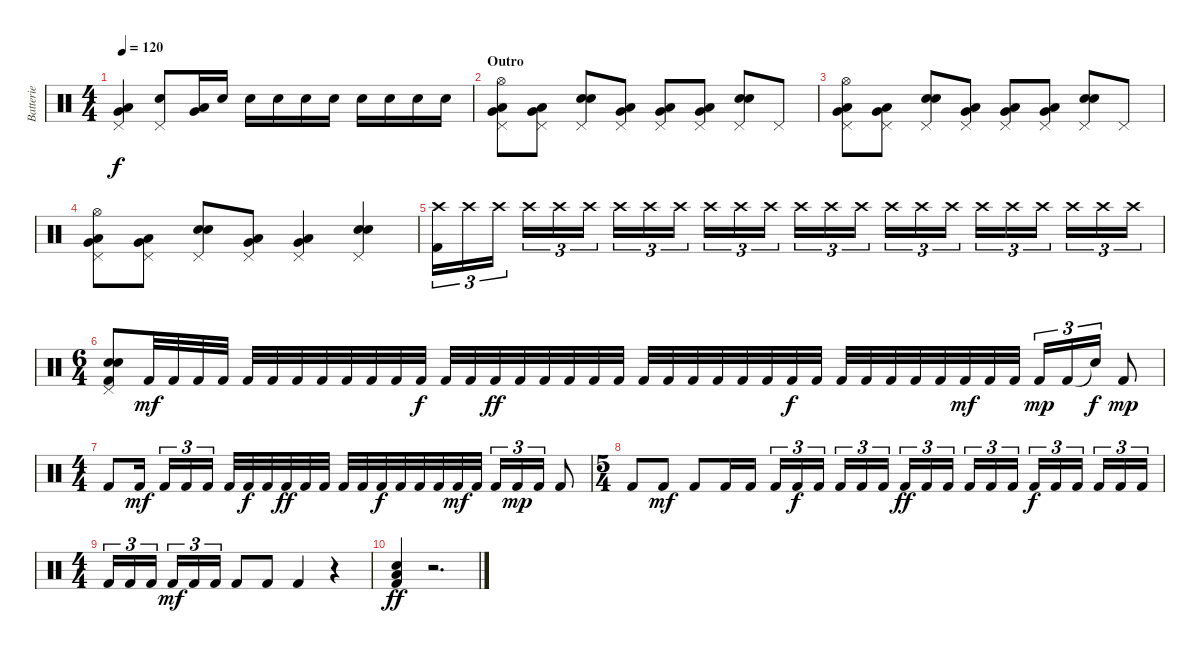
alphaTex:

\track ("Batterie" "Batterie") {instrument percussion}
\staff {score}
\articulation defaults
\ts (4 4)
\tempo 120
\clef neutral
\ks c
("Pedal Hi-Hat (hit)" "Very Low Tom (hit)" "Low Floor Tom (hit)").4{dy f} ("Pedal Hi-Hat (hit)" "Electric Snare (hit)").8 ("Very Low Tom (hit)" "Low Floor Tom (hit)").16 "Electric Snare (hit)".16 "Electric Snare (hit)".16 "Electric Snare (hit)".16 "Electric Snare (hit)".16 "Electric Snare (hit)".16 "Electric Snare (hit)".16 "Electric Snare (hit)".16 "Electric Snare (hit)".16 "Electric Snare (hit)".16 |
\section ("" "Outro")
("Pedal Hi-Hat (hit)" "Hi-Hat (open)" "Very Low Tom (hit)" "Low Floor Tom (hit)").8 ("Pedal Hi-Hat (hit)" "Very Low Tom (hit)" "Low Floor Tom (hit)").8 ("Pedal Hi-Hat (hit)" "Electric Snare (hit)" "Electric Snare (hit)").8 ("Pedal Hi-Hat (hit)" "Very Low Tom (hit)" "Low Floor Tom (hit)").8 ("Pedal Hi-Hat (hit)" "Very Low Tom (hit)" "Low Floor Tom (hit)").8 ("Pedal Hi-Hat (hit)" "Very Low Tom (hit)" "Low Floor Tom (hit)").8 ("Pedal Hi-Hat (hit)" "Electric Snare (hit)" "Electric Snare (hit)").8 "Pedal Hi-Hat (hit)".8 |
("Pedal Hi-Hat (hit)" "Hi-Hat (open)" "Very Low Tom (hit)" "Low Floor Tom (hit)").8 ("Pedal Hi-Hat (hit)" "Very Low Tom (hit)" "Low Floor Tom (hit)").8 ("Pedal Hi-Hat (hit)" "Electric Snare (hit)" "Electric Snare (hit)").8 ("Pedal Hi-Hat (hit)" "Very Low Tom (hit)" "Low Floor Tom (hit)").8 ("Pedal Hi-Hat (hit)" "Very Low Tom (hit)" "Low Floor Tom (hit)").8 ("Pedal Hi-Hat (hit)" "Very Low Tom (hit)" "Low Floor Tom (hit)").8 ("Pedal Hi-Hat (hit)" "Electric Snare (hit)" "Electric Snare (hit)").8 "Pedal Hi-Hat (hit)".8 |
("Pedal Hi-Hat (hit)" "Hi-Hat (open)" "Very Low Tom (hit)" "Low Floor Tom (hit)").8 ("Pedal Hi-Hat (hit)" "Very Low Tom (hit)" "Low Floor Tom (hit)").8 ("Pedal Hi-Hat (hit)" "Electric Snare (hit)" "Electric Snare (hit)").8 ("Pedal Hi-Hat (hit)" "Very Low Tom (hit)" "Low Floor Tom (hit)").8 ("Pedal Hi-Hat (hit)" "Very Low Tom (hit)" "Low Floor Tom (hit)").4 ("Pedal Hi-Hat (hit)" "Electric Snare (hit)" "Electric Snare (hit)").4 |
("Crash high (hit)" "Kick (hit) 2").16{tu (3 2)} "Crash high (hit)".16{tu (3 2)} "Crash high (hit)".16{tu (3 2)} "Crash high (hit)".16{tu (3 2)} "Crash high (hit)".16{tu (3 2)} "Crash high (hit)".16{tu (3 2)} "Crash high (hit)".16{tu (3 2)} "Crash high (hit)".16{tu (3 2)} "Crash high (hit)".16{tu (3 2)} "Crash high (hit)".16{tu (3 2)} "Crash high (hit)".16{tu (3 2)} "Crash high (hit)".16{tu (3 2)} "Crash high (hit)".16{tu (3 2)} "Crash high (hit)".16{tu (3 2)} "Crash high (hit)".16{tu (3 2)} "Crash high (hit)".16{tu (3 2)} "Crash high (hit)".16{tu (3 2)} "Crash high (hit)".16{tu (3 2)} "Crash high (hit)".16{tu (3 2)} "Crash high (hit)".16{tu (3 2)} "Crash high (hit)".16{tu (3 2)} "Crash high (hit)".16{tu (3 2)} "Crash high (hit)".16{tu (3 2)} "Crash high (hit)".16{tu (3 2)} |
\ts (6 4)
("Pedal Hi-Hat (hit)" "Electric Snare (hit)" "Electric Snare (hit)" "Kick (hit) 2").8 "Kick (hit) 2".32{dy mf} "Kick (hit) 2".32 "Kick (hit) 2".32 "Kick (hit) 2".32 "Kick (hit) 2".32 "Kick (hit) 2".32 "Kick (hit) 2".32 "Kick (hit) 2".32 "Kick (hit) 2".32 "Kick (hit) 2".32 "Kick (hit) 2".32 "Kick (hit) 2".32{dy f} "Kick (hit) 2".32 "Kick (hit) 2".32 "Kick (hit) 2".32{dy ff} "Kick (hit) 2".32 "Kick (hit) 2".32 "Kick (hit) 2".32 "Kick (hit) 2".32 "Kick (hit) 2".32 "Kick (hit) 2".32 "Kick (hit) 2".32 "Kick (hit) 2".32 "Kick (hit) 2".32 "Kick (hit) 2".32 "Kick (hit) 2".32 "Kick (hit) 2".32{dy f} "Kick (hit) 2".32 "Kick (hit) 2".32 "Kick (hit) 2".32 "Kick (hit) 2".32 "Kick (hit) 2".32 "Kick (hit) 2".32 "Kick (hit) 2".32{dy mf} "Kick (hit) 2".32 "Kick (hit) 2".32 "Kick (hit) 2".16{tu (3 2) dy mp} "Kick (hit) 2".16{tu (3 2)} "Snare (hit)"{t}.16{tu (3 2) dy f} "Kick (hit) 2".8{dy mp} |
\ts (4 4)
"Kick (hit) 2".8 "Kick (hit) 2".16{dy mf} "Kick (hit) 2".16{tu (3 2)} "Kick (hit) 2".16{tu (3 2)} "Kick (hit) 2".16{tu (3 2)} "Kick (hit) 2".32 "Kick (hit) 2".32{dy f} "Kick (hit) 2".32 "Kick (hit) 2".32{dy ff} "Kick (hit) 2".32 "Kick (hit) 2".32 "Kick (hit) 2".32 "Kick (hit) 2".32 "Kick (hit) 2".32{dy f} "Kick (hit) 2".32 "Kick (hit) 2".32 "Kick (hit) 2".32 "Kick (hit) 2".32{dy mf} "Kick (hit) 2".32 "Kick (hit) 2".16{tu (3 2)} "Kick (hit) 2".16{tu (3 2) dy mp} "Kick (hit) 2".16{tu (3 2)} "Kick (hit) 2".8 |
\ts (5 4)
"Kick (hit) 2".8 "Kick (hit) 2".8{dy mf} "Kick (hit) 2".8 "Kick (hit) 2".16 "Kick (hit) 2".16 "Kick (hit) 2".16{tu (3 2)} "Kick (hit) 2".16{tu (3 2) dy f} "Kick (hit) 2".16{tu (3 2)} "Kick (hit) 2".16{tu (3 2)} "Kick (hit) 2".16{tu (3 2)} "Kick (hit) 2".16{tu (3 2)} "Kick (hit) 2".16{tu (3 2) dy ff} "Kick (hit) 2".16{tu (3 2)} "Kick (hit) 2".16{tu (3 2)} "Kick (hit) 2".16{tu (3 2)} "Kick (hit) 2".16{tu (3 2)} "Kick (hit) 2".16{tu (3 2)} "Kick (hit) 2".16{tu (3 2) dy f} "Kick (hit) 2".16{tu (3 2)} "Kick (hit) 2".16{tu (3 2)} "Kick (hit) 2".16{tu (3 2)} "Kick (hit) 2".16{tu (3 2)} "Kick (hit) 2".16{tu (3 2)} |
\ts (4 4)
"Kick (hit) 2".16{tu (3 2)} "Kick (hit) 2".16{tu (3 2)} "Kick (hit) 2".16{tu (3 2)} "Kick (hit) 2".16{tu (3 2) dy mf} "Kick (hit) 2".16{tu (3 2)} "Kick (hit) 2".16{tu (3 2)} "Kick (hit) 2".8 "Kick (hit) 2".8 "Kick (hit) 2".4 r.4 |
("Electric Snare (hit)" "Low Floor Tom (hit)" "Kick (hit) 2").4{dy ff} r.2{d}
